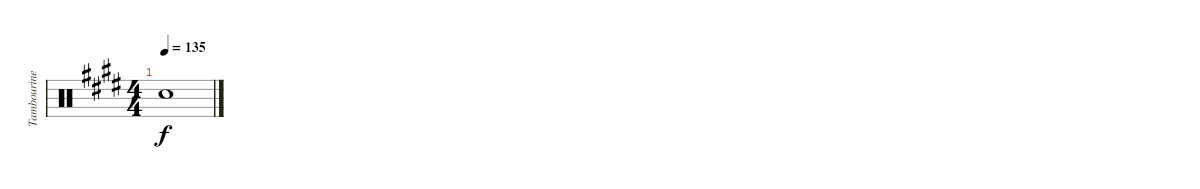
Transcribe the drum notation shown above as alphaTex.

\track ("Tambourine" "Tambourine") {instrument percussion}
\staff {score}
\articulation defaults
\ts (4 4)
\tempo 135
\clef neutral
\ks e "Snare (hit)"{t}.1{dy f}
